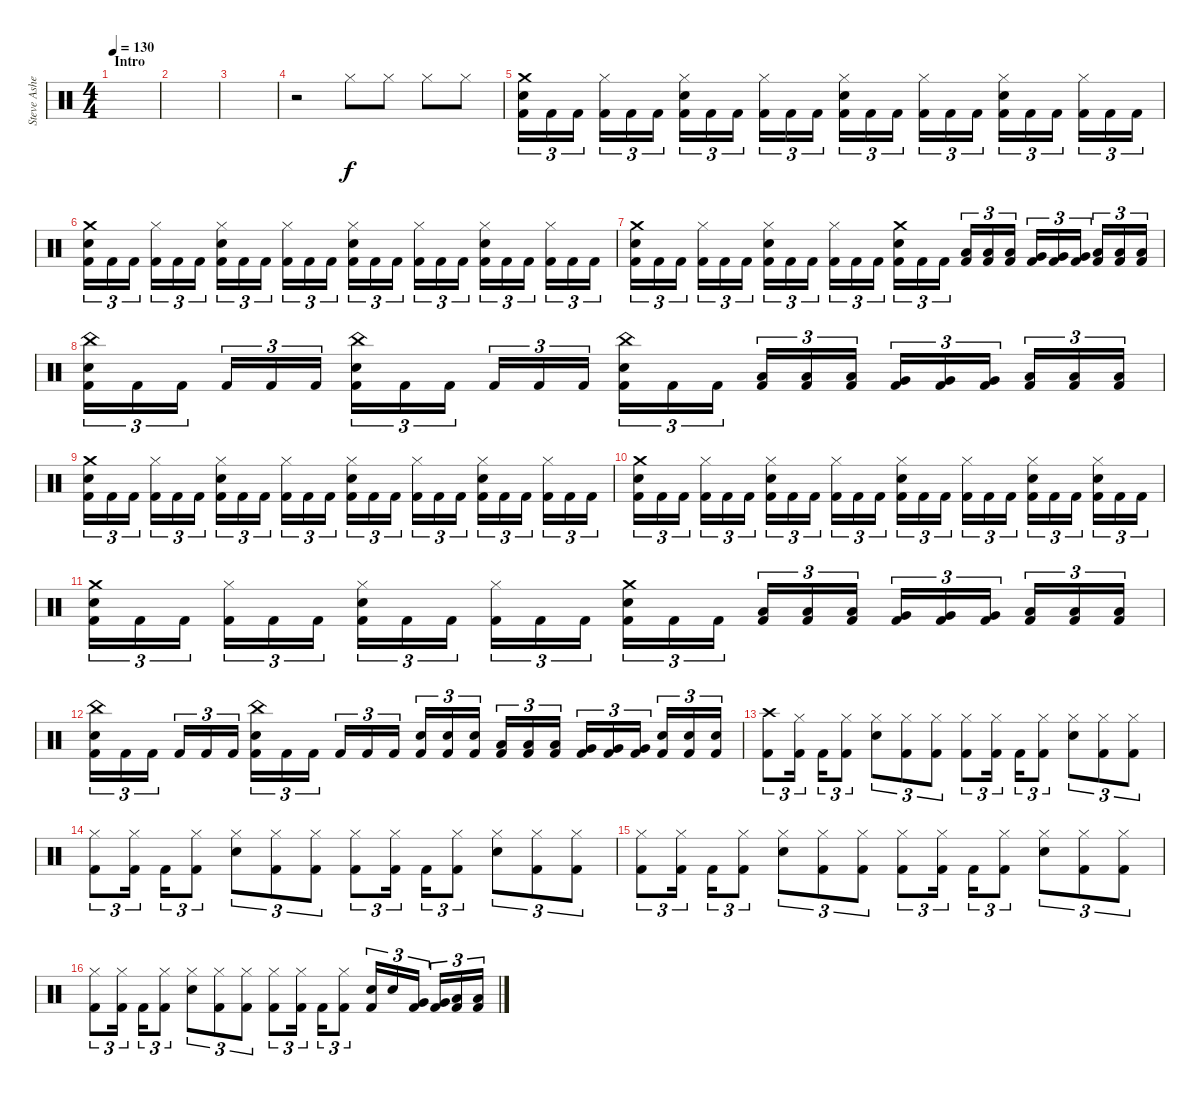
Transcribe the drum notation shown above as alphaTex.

\track ("Steve Asheim" "Steve Ashe") {instrument percussion}
\staff {score}
\articulation defaults
\ts (4 4)
\section ("" "Intro")
\tempo 130
\clef neutral
\ks c
|
|
|
r.2 "Hi-Hat (closed)".8 "Hi-Hat (closed)".8 "Hi-Hat (closed)".8 "Hi-Hat (closed)".8 |
("Crash medium (hit)" "Electric Snare (hit)" "Kick (hit) 2").16{tu (3 2)} "Kick (hit) 2".16{tu (3 2)} "Kick (hit) 2".16{tu (3 2)} ("Hi-Hat (closed)" "Kick (hit) 2").16{tu (3 2)} "Kick (hit) 2".16{tu (3 2)} "Kick (hit) 2".16{tu (3 2)} ("Hi-Hat (closed)" "Electric Snare (hit)" "Kick (hit) 2").16{tu (3 2)} "Kick (hit) 2".16{tu (3 2)} "Kick (hit) 2".16{tu (3 2)} ("Hi-Hat (closed)" "Kick (hit) 2").16{tu (3 2)} "Kick (hit) 2".16{tu (3 2)} "Kick (hit) 2".16{tu (3 2)} ("Hi-Hat (closed)" "Electric Snare (hit)" "Kick (hit) 2").16{tu (3 2)} "Kick (hit) 2".16{tu (3 2)} "Kick (hit) 2".16{tu (3 2)} ("Hi-Hat (closed)" "Kick (hit) 2").16{tu (3 2)} "Kick (hit) 2".16{tu (3 2)} "Kick (hit) 2".16{tu (3 2)} ("Hi-Hat (closed)" "Electric Snare (hit)" "Kick (hit) 2").16{tu (3 2)} "Kick (hit) 2".16{tu (3 2)} "Kick (hit) 2".16{tu (3 2)} ("Hi-Hat (closed)" "Kick (hit) 2").16{tu (3 2)} "Kick (hit) 2".16{tu (3 2)} "Kick (hit) 2".16{tu (3 2)} |
("Crash medium (hit)" "Electric Snare (hit)" "Kick (hit) 2").16{tu (3 2)} "Kick (hit) 2".16{tu (3 2)} "Kick (hit) 2".16{tu (3 2)} ("Hi-Hat (closed)" "Kick (hit) 2").16{tu (3 2)} "Kick (hit) 2".16{tu (3 2)} "Kick (hit) 2".16{tu (3 2)} ("Hi-Hat (closed)" "Electric Snare (hit)" "Kick (hit) 2").16{tu (3 2)} "Kick (hit) 2".16{tu (3 2)} "Kick (hit) 2".16{tu (3 2)} ("Hi-Hat (closed)" "Kick (hit) 2").16{tu (3 2)} "Kick (hit) 2".16{tu (3 2)} "Kick (hit) 2".16{tu (3 2)} ("Hi-Hat (closed)" "Electric Snare (hit)" "Kick (hit) 2").16{tu (3 2)} "Kick (hit) 2".16{tu (3 2)} "Kick (hit) 2".16{tu (3 2)} ("Hi-Hat (closed)" "Kick (hit) 2").16{tu (3 2)} "Kick (hit) 2".16{tu (3 2)} "Kick (hit) 2".16{tu (3 2)} ("Hi-Hat (closed)" "Electric Snare (hit)" "Kick (hit) 2").16{tu (3 2)} "Kick (hit) 2".16{tu (3 2)} "Kick (hit) 2".16{tu (3 2)} ("Hi-Hat (closed)" "Kick (hit) 2").16{tu (3 2)} "Kick (hit) 2".16{tu (3 2)} "Kick (hit) 2".16{tu (3 2)} |
("Crash medium (hit)" "Electric Snare (hit)" "Kick (hit) 2").16{tu (3 2)} "Kick (hit) 2".16{tu (3 2)} "Kick (hit) 2".16{tu (3 2)} ("Hi-Hat (closed)" "Kick (hit) 2").16{tu (3 2)} "Kick (hit) 2".16{tu (3 2)} "Kick (hit) 2".16{tu (3 2)} ("Hi-Hat (closed)" "Electric Snare (hit)" "Kick (hit) 2").16{tu (3 2)} "Kick (hit) 2".16{tu (3 2)} "Kick (hit) 2".16{tu (3 2)} ("Hi-Hat (closed)" "Kick (hit) 2").16{tu (3 2)} "Kick (hit) 2".16{tu (3 2)} "Kick (hit) 2".16{tu (3 2)} ("Crash medium (hit)" "Electric Snare (hit)" "Kick (hit) 2").16{tu (3 2)} "Kick (hit) 2".16{tu (3 2)} "Kick (hit) 2".16{tu (3 2)} ("Low Tom (hit)" "Kick (hit) 2").16{tu (3 2)} ("Low Tom (hit)" "Kick (hit) 2").16{tu (3 2)} ("Low Tom (hit)" "Kick (hit) 2").16{tu (3 2)} ("Very Low Tom (hit)" "Kick (hit) 2").16{tu (3 2)} ("Very Low Tom (hit)" "Kick (hit) 2").16{tu (3 2)} ("Very Low Tom (hit)" "Kick (hit) 2").16{tu (3 2)} ("Low Floor Tom (hit)" "Kick (hit) 2").16{tu (3 2)} ("Low Floor Tom (hit)" "Kick (hit) 2").16{tu (3 2)} ("Low Floor Tom (hit)" "Kick (hit) 2").16{tu (3 2)} |
("China (hit)" "Electric Snare (hit)" "Kick (hit) 2").16{tu (3 2)} "Kick (hit) 2".16{tu (3 2)} "Kick (hit) 2".16{tu (3 2)} "Kick (hit) 2".16{tu (3 2)} "Kick (hit) 2".16{tu (3 2)} "Kick (hit) 2".16{tu (3 2)} ("China (hit)" "Electric Snare (hit)" "Kick (hit) 2").16{tu (3 2)} "Kick (hit) 2".16{tu (3 2)} "Kick (hit) 2".16{tu (3 2)} "Kick (hit) 2".16{tu (3 2)} "Kick (hit) 2".16{tu (3 2)} "Kick (hit) 2".16{tu (3 2)} ("China (hit)" "Electric Snare (hit)" "Kick (hit) 2").16{tu (3 2)} "Kick (hit) 2".16{tu (3 2)} "Kick (hit) 2".16{tu (3 2)} ("Low Tom (hit)" "Kick (hit) 2").16{tu (3 2)} ("Low Tom (hit)" "Kick (hit) 2").16{tu (3 2)} ("Low Tom (hit)" "Kick (hit) 2").16{tu (3 2)} ("Very Low Tom (hit)" "Kick (hit) 2").16{tu (3 2)} ("Very Low Tom (hit)" "Kick (hit) 2").16{tu (3 2)} ("Very Low Tom (hit)" "Kick (hit) 2").16{tu (3 2)} ("Low Floor Tom (hit)" "Kick (hit) 2").16{tu (3 2)} ("Low Floor Tom (hit)" "Kick (hit) 2").16{tu (3 2)} ("Low Floor Tom (hit)" "Kick (hit) 2").16{tu (3 2)} |
("Crash medium (hit)" "Electric Snare (hit)" "Kick (hit) 2").16{tu (3 2)} "Kick (hit) 2".16{tu (3 2)} "Kick (hit) 2".16{tu (3 2)} ("Hi-Hat (closed)" "Kick (hit) 2").16{tu (3 2)} "Kick (hit) 2".16{tu (3 2)} "Kick (hit) 2".16{tu (3 2)} ("Hi-Hat (closed)" "Electric Snare (hit)" "Kick (hit) 2").16{tu (3 2)} "Kick (hit) 2".16{tu (3 2)} "Kick (hit) 2".16{tu (3 2)} ("Hi-Hat (closed)" "Kick (hit) 2").16{tu (3 2)} "Kick (hit) 2".16{tu (3 2)} "Kick (hit) 2".16{tu (3 2)} ("Hi-Hat (closed)" "Electric Snare (hit)" "Kick (hit) 2").16{tu (3 2)} "Kick (hit) 2".16{tu (3 2)} "Kick (hit) 2".16{tu (3 2)} ("Hi-Hat (closed)" "Kick (hit) 2").16{tu (3 2)} "Kick (hit) 2".16{tu (3 2)} "Kick (hit) 2".16{tu (3 2)} ("Hi-Hat (closed)" "Electric Snare (hit)" "Kick (hit) 2").16{tu (3 2)} "Kick (hit) 2".16{tu (3 2)} "Kick (hit) 2".16{tu (3 2)} ("Hi-Hat (closed)" "Kick (hit) 2").16{tu (3 2)} "Kick (hit) 2".16{tu (3 2)} "Kick (hit) 2".16{tu (3 2)} |
("Crash medium (hit)" "Electric Snare (hit)" "Kick (hit) 2").16{tu (3 2)} "Kick (hit) 2".16{tu (3 2)} "Kick (hit) 2".16{tu (3 2)} ("Hi-Hat (closed)" "Kick (hit) 2").16{tu (3 2)} "Kick (hit) 2".16{tu (3 2)} "Kick (hit) 2".16{tu (3 2)} ("Hi-Hat (closed)" "Electric Snare (hit)" "Kick (hit) 2").16{tu (3 2)} "Kick (hit) 2".16{tu (3 2)} "Kick (hit) 2".16{tu (3 2)} ("Hi-Hat (closed)" "Kick (hit) 2").16{tu (3 2)} "Kick (hit) 2".16{tu (3 2)} "Kick (hit) 2".16{tu (3 2)} ("Hi-Hat (closed)" "Electric Snare (hit)" "Kick (hit) 2").16{tu (3 2)} "Kick (hit) 2".16{tu (3 2)} "Kick (hit) 2".16{tu (3 2)} ("Hi-Hat (closed)" "Kick (hit) 2").16{tu (3 2)} "Kick (hit) 2".16{tu (3 2)} "Kick (hit) 2".16{tu (3 2)} ("Hi-Hat (closed)" "Electric Snare (hit)" "Kick (hit) 2").16{tu (3 2)} "Kick (hit) 2".16{tu (3 2)} "Kick (hit) 2".16{tu (3 2)} ("Hi-Hat (closed)" "Electric Snare (hit)" "Kick (hit) 2").16{tu (3 2)} "Kick (hit) 2".16{tu (3 2)} "Kick (hit) 2".16{tu (3 2)} |
("Crash medium (hit)" "Electric Snare (hit)" "Kick (hit) 2").16{tu (3 2)} "Kick (hit) 2".16{tu (3 2)} "Kick (hit) 2".16{tu (3 2)} ("Hi-Hat (closed)" "Kick (hit) 2").16{tu (3 2)} "Kick (hit) 2".16{tu (3 2)} "Kick (hit) 2".16{tu (3 2)} ("Hi-Hat (closed)" "Electric Snare (hit)" "Kick (hit) 2").16{tu (3 2)} "Kick (hit) 2".16{tu (3 2)} "Kick (hit) 2".16{tu (3 2)} ("Hi-Hat (closed)" "Kick (hit) 2").16{tu (3 2)} "Kick (hit) 2".16{tu (3 2)} "Kick (hit) 2".16{tu (3 2)} ("Crash medium (hit)" "Electric Snare (hit)" "Kick (hit) 2").16{tu (3 2)} "Kick (hit) 2".16{tu (3 2)} "Kick (hit) 2".16{tu (3 2)} ("Low Tom (hit)" "Kick (hit) 2").16{tu (3 2)} ("Low Tom (hit)" "Kick (hit) 2").16{tu (3 2)} ("Low Tom (hit)" "Kick (hit) 2").16{tu (3 2)} ("Very Low Tom (hit)" "Kick (hit) 2").16{tu (3 2)} ("Very Low Tom (hit)" "Kick (hit) 2").16{tu (3 2)} ("Very Low Tom (hit)" "Kick (hit) 2").16{tu (3 2)} ("Low Floor Tom (hit)" "Kick (hit) 2").16{tu (3 2)} ("Low Floor Tom (hit)" "Kick (hit) 2").16{tu (3 2)} ("Low Floor Tom (hit)" "Kick (hit) 2").16{tu (3 2)} |
("China (hit)" "Electric Snare (hit)" "Kick (hit) 2").16{tu (3 2)} "Kick (hit) 2".16{tu (3 2)} "Kick (hit) 2".16{tu (3 2)} "Kick (hit) 2".16{tu (3 2)} "Kick (hit) 2".16{tu (3 2)} "Kick (hit) 2".16{tu (3 2)} ("China (hit)" "Electric Snare (hit)" "Kick (hit) 2").16{tu (3 2)} "Kick (hit) 2".16{tu (3 2)} "Kick (hit) 2".16{tu (3 2)} "Kick (hit) 2".16{tu (3 2)} "Kick (hit) 2".16{tu (3 2)} "Kick (hit) 2".16{tu (3 2)} ("Electric Snare (hit)" "Kick (hit) 2").16{tu (3 2)} ("Electric Snare (hit)" "Kick (hit) 2").16{tu (3 2)} ("Electric Snare (hit)" "Kick (hit) 2").16{tu (3 2)} ("Low Tom (hit)" "Kick (hit) 2").16{tu (3 2)} ("Low Tom (hit)" "Kick (hit) 2").16{tu (3 2)} ("Low Tom (hit)" "Kick (hit) 2").16{tu (3 2)} ("Very Low Tom (hit)" "Kick (hit) 2").16{tu (3 2)} ("Very Low Tom (hit)" "Kick (hit) 2").16{tu (3 2)} ("Very Low Tom (hit)" "Kick (hit) 2").16{tu (3 2)} ("Electric Snare (hit)" "Kick (hit) 2").16{tu (3 2)} ("Electric Snare (hit)" "Kick (hit) 2").16{tu (3 2)} ("Electric Snare (hit)" "Kick (hit) 2").16{tu (3 2)} |
("Crash high (hit)" "Kick (hit) 2").8{tu (3 2)} ("Hi-Hat (closed)" "Kick (hit) 2").16{tu (3 2)} "Kick (hit) 2".16{tu (3 2)} ("Hi-Hat (closed)" "Kick (hit) 2").8{tu (3 2)} ("Hi-Hat (closed)" "Electric Snare (hit)").8{tu (3 2)} ("Hi-Hat (closed)" "Kick (hit) 2").8{tu (3 2)} ("Hi-Hat (closed)" "Kick (hit) 2").8{tu (3 2)} ("Hi-Hat (closed)" "Kick (hit) 2").8{tu (3 2)} ("Hi-Hat (closed)" "Kick (hit) 2").16{tu (3 2)} "Kick (hit) 2".16{tu (3 2)} ("Hi-Hat (closed)" "Kick (hit) 2").8{tu (3 2)} ("Hi-Hat (closed)" "Electric Snare (hit)").8{tu (3 2)} ("Hi-Hat (closed)" "Kick (hit) 2").8{tu (3 2)} ("Hi-Hat (closed)" "Kick (hit) 2").8{tu (3 2)} |
("Hi-Hat (closed)" "Kick (hit) 2").8{tu (3 2)} ("Hi-Hat (closed)" "Kick (hit) 2").16{tu (3 2)} "Kick (hit) 2".16{tu (3 2)} ("Hi-Hat (closed)" "Kick (hit) 2").8{tu (3 2)} ("Hi-Hat (closed)" "Electric Snare (hit)").8{tu (3 2)} ("Hi-Hat (closed)" "Kick (hit) 2").8{tu (3 2)} ("Hi-Hat (closed)" "Kick (hit) 2").8{tu (3 2)} ("Hi-Hat (closed)" "Kick (hit) 2").8{tu (3 2)} ("Hi-Hat (closed)" "Kick (hit) 2").16{tu (3 2)} "Kick (hit) 2".16{tu (3 2)} ("Hi-Hat (closed)" "Kick (hit) 2").8{tu (3 2)} ("Hi-Hat (closed)" "Electric Snare (hit)").8{tu (3 2)} ("Hi-Hat (closed)" "Kick (hit) 2").8{tu (3 2)} ("Hi-Hat (closed)" "Kick (hit) 2").8{tu (3 2)} |
("Hi-Hat (closed)" "Kick (hit) 2").8{tu (3 2)} ("Hi-Hat (closed)" "Kick (hit) 2").16{tu (3 2)} "Kick (hit) 2".16{tu (3 2)} ("Hi-Hat (closed)" "Kick (hit) 2").8{tu (3 2)} ("Hi-Hat (closed)" "Electric Snare (hit)").8{tu (3 2)} ("Hi-Hat (closed)" "Kick (hit) 2").8{tu (3 2)} ("Hi-Hat (closed)" "Kick (hit) 2").8{tu (3 2)} ("Hi-Hat (closed)" "Kick (hit) 2").8{tu (3 2)} ("Hi-Hat (closed)" "Kick (hit) 2").16{tu (3 2)} "Kick (hit) 2".16{tu (3 2)} ("Hi-Hat (closed)" "Kick (hit) 2").8{tu (3 2)} ("Hi-Hat (closed)" "Electric Snare (hit)").8{tu (3 2)} ("Hi-Hat (closed)" "Kick (hit) 2").8{tu (3 2)} ("Hi-Hat (closed)" "Kick (hit) 2").8{tu (3 2)} |
("Hi-Hat (closed)" "Kick (hit) 2").8{tu (3 2)} ("Hi-Hat (closed)" "Kick (hit) 2").16{tu (3 2)} "Kick (hit) 2".16{tu (3 2)} ("Hi-Hat (closed)" "Kick (hit) 2").8{tu (3 2)} ("Hi-Hat (closed)" "Electric Snare (hit)").8{tu (3 2)} ("Hi-Hat (closed)" "Kick (hit) 2").8{tu (3 2)} ("Hi-Hat (closed)" "Kick (hit) 2").8{tu (3 2)} ("Hi-Hat (closed)" "Kick (hit) 2").8{tu (3 2)} ("Hi-Hat (closed)" "Kick (hit) 2").16{tu (3 2)} "Kick (hit) 2".16{tu (3 2)} ("Hi-Hat (closed)" "Kick (hit) 2").8{tu (3 2)} ("Electric Snare (hit)" "Kick (hit) 2").16{tu (3 2)} "Electric Snare (hit)".16{tu (3 2)} ("Very Low Tom (hit)" "Kick (hit) 2").16{tu (3 2)} ("Very Low Tom (hit)" "Kick (hit) 2").16{tu (3 2)} ("Low Floor Tom (hit)" "Kick (hit) 2").16{tu (3 2)} ("Low Floor Tom (hit)" "Kick (hit) 2").16{tu (3 2)}
